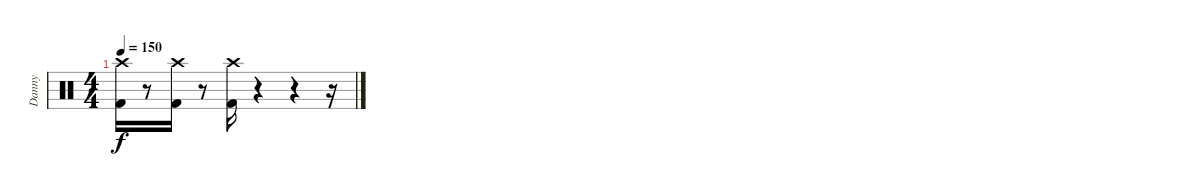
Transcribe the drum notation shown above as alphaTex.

\track ("Danny" "Danny") {instrument percussion}
\staff {score}
\articulation defaults
\ts (4 4)
\tempo 150
\clef neutral
\ks c
("Crash high (hit)" "Kick (hit) 2").16{dy f} r.8 ("Crash high (hit)" "Kick (hit) 2").16 r.8 ("Crash high (hit)" "Kick (hit) 2").16 r.4 r.4 r.16
